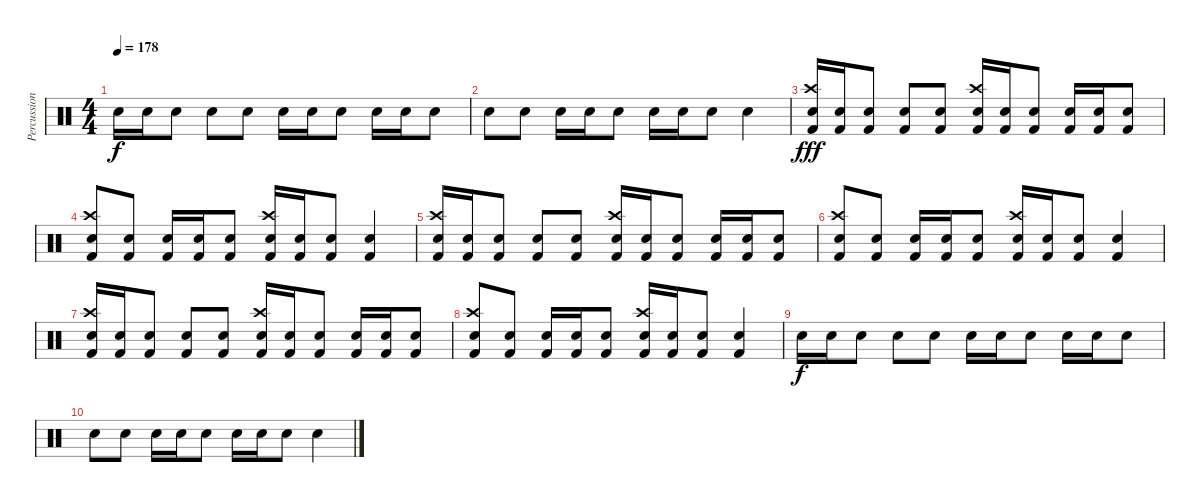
\track ("Percussion" "Percussion") {instrument percussion}
\staff {score}
\articulation defaults
\ts (4 4)
\tempo 178
\clef neutral
\ks c "Snare (hit) 2".16{dy f} "Snare (hit) 2".16 "Snare (hit) 2".8 "Snare (hit) 2".8 "Snare (hit) 2".8 "Snare (hit) 2".16 "Snare (hit) 2".16 "Snare (hit) 2".8 "Snare (hit) 2".16 "Snare (hit) 2".16 "Snare (hit) 2".8
|
"Snare (hit) 2".8 "Snare (hit) 2".8 "Snare (hit) 2".16 "Snare (hit) 2".16 "Snare (hit) 2".8 "Snare (hit) 2".16 "Snare (hit) 2".16 "Snare (hit) 2".8 "Snare (hit) 2".4 |
("Crash high (hit)" "Snare (hit) 2" "Kick (hit) 2").16{dy fff} ("Snare (hit) 2" "Kick (hit) 2").16 ("Snare (hit) 2" "Kick (hit) 2").8 ("Snare (hit) 2" "Kick (hit) 2").8 ("Snare (hit) 2" "Kick (hit) 2").8 ("Crash high (hit)" "Snare (hit) 2" "Kick (hit) 2").16 ("Snare (hit) 2" "Kick (hit) 2").16 ("Snare (hit) 2" "Kick (hit) 2").8 ("Snare (hit) 2" "Kick (hit) 2").16 ("Snare (hit) 2" "Kick (hit) 2").16 ("Snare (hit) 2" "Kick (hit) 2").8 |
("Crash high (hit)" "Snare (hit) 2" "Kick (hit) 2").8 ("Snare (hit) 2" "Kick (hit) 2").8 ("Snare (hit) 2" "Kick (hit) 2").16 ("Snare (hit) 2" "Kick (hit) 2").16 ("Snare (hit) 2" "Kick (hit) 2").8 ("Crash high (hit)" "Snare (hit) 2" "Kick (hit) 2").16 ("Snare (hit) 2" "Kick (hit) 2").16 ("Snare (hit) 2" "Kick (hit) 2").8 ("Snare (hit) 2" "Kick (hit) 2").4 |
("Crash high (hit)" "Snare (hit) 2" "Kick (hit) 2").16 ("Snare (hit) 2" "Kick (hit) 2").16 ("Snare (hit) 2" "Kick (hit) 2").8 ("Snare (hit) 2" "Kick (hit) 2").8 ("Snare (hit) 2" "Kick (hit) 2").8 ("Crash high (hit)" "Snare (hit) 2" "Kick (hit) 2").16 ("Snare (hit) 2" "Kick (hit) 2").16 ("Snare (hit) 2" "Kick (hit) 2").8 ("Snare (hit) 2" "Kick (hit) 2").16 ("Snare (hit) 2" "Kick (hit) 2").16 ("Snare (hit) 2" "Kick (hit) 2").8 |
("Crash high (hit)" "Snare (hit) 2" "Kick (hit) 2").8 ("Snare (hit) 2" "Kick (hit) 2").8 ("Snare (hit) 2" "Kick (hit) 2").16 ("Snare (hit) 2" "Kick (hit) 2").16 ("Snare (hit) 2" "Kick (hit) 2").8 ("Crash high (hit)" "Snare (hit) 2" "Kick (hit) 2").16 ("Snare (hit) 2" "Kick (hit) 2").16 ("Snare (hit) 2" "Kick (hit) 2").8 ("Snare (hit) 2" "Kick (hit) 2").4 |
("Crash high (hit)" "Snare (hit) 2" "Kick (hit) 2").16 ("Snare (hit) 2" "Kick (hit) 2").16 ("Snare (hit) 2" "Kick (hit) 2").8 ("Snare (hit) 2" "Kick (hit) 2").8 ("Snare (hit) 2" "Kick (hit) 2").8 ("Crash high (hit)" "Snare (hit) 2" "Kick (hit) 2").16 ("Snare (hit) 2" "Kick (hit) 2").16 ("Snare (hit) 2" "Kick (hit) 2").8 ("Snare (hit) 2" "Kick (hit) 2").16 ("Snare (hit) 2" "Kick (hit) 2").16 ("Snare (hit) 2" "Kick (hit) 2").8 |
("Crash high (hit)" "Snare (hit) 2" "Kick (hit) 2").8 ("Snare (hit) 2" "Kick (hit) 2").8 ("Snare (hit) 2" "Kick (hit) 2").16 ("Snare (hit) 2" "Kick (hit) 2").16 ("Snare (hit) 2" "Kick (hit) 2").8 ("Crash high (hit)" "Snare (hit) 2" "Kick (hit) 2").16 ("Snare (hit) 2" "Kick (hit) 2").16 ("Snare (hit) 2" "Kick (hit) 2").8 ("Snare (hit) 2" "Kick (hit) 2").4 |
"Snare (hit) 2".16{dy f} "Snare (hit) 2".16 "Snare (hit) 2".8 "Snare (hit) 2".8 "Snare (hit) 2".8 "Snare (hit) 2".16 "Snare (hit) 2".16 "Snare (hit) 2".8 "Snare (hit) 2".16 "Snare (hit) 2".16 "Snare (hit) 2".8 |
"Snare (hit) 2".8 "Snare (hit) 2".8 "Snare (hit) 2".16 "Snare (hit) 2".16 "Snare (hit) 2".8 "Snare (hit) 2".16 "Snare (hit) 2".16 "Snare (hit) 2".8 "Electric Snare (hit)".4
